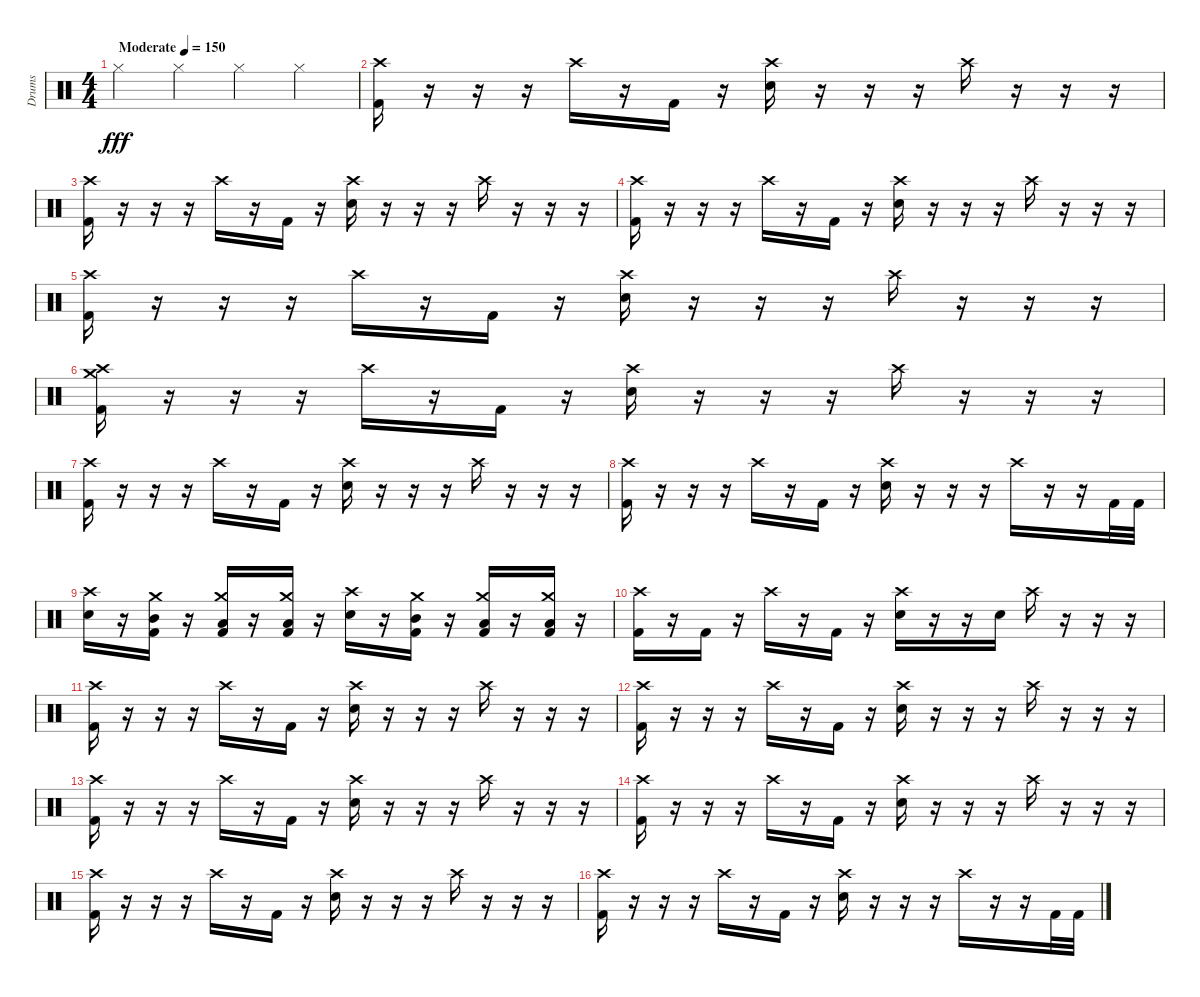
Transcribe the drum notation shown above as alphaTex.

\track ("Drums" "Drums") {instrument percussion}
\staff {score}
\articulation defaults
\ts (4 4)
\tempo (150 "Moderate")
\clef neutral
\ks c "Hi-Hat (closed)".4{dy fff} "Hi-Hat (closed)".4 "Hi-Hat (closed)".4 "Hi-Hat (closed)".4
|
("Crash high (hit)" "Kick (hit) 2").16 r.16 r.16 r.16 "Crash high (hit)".16 r.16 "Kick (hit) 2".16 r.16 ("Crash high (hit)" "Electric Snare (hit)").16 r.16 r.16 r.16 "Crash high (hit)".16 r.16 r.16 r.16 |
("Crash high (hit)" "Kick (hit) 2").16 r.16 r.16 r.16 "Crash high (hit)".16 r.16 "Kick (hit) 2".16 r.16 ("Crash high (hit)" "Electric Snare (hit)").16 r.16 r.16 r.16 "Crash high (hit)".16 r.16 r.16 r.16 |
("Crash high (hit)" "Kick (hit) 2").16 r.16 r.16 r.16 "Crash high (hit)".16 r.16 "Kick (hit) 2".16 r.16 ("Crash high (hit)" "Electric Snare (hit)").16 r.16 r.16 r.16 "Crash high (hit)".16 r.16 r.16 r.16 |
("Crash high (hit)" "Kick (hit) 2").16 r.16 r.16 r.16 "Crash high (hit)".16 r.16 "Kick (hit) 2".16 r.16 ("Crash high (hit)" "Electric Snare (hit)").16 r.16 r.16 r.16 "Crash high (hit)".16 r.16 r.16 r.16 |
("Crash medium (hit)" "Crash high (hit)" "Kick (hit) 2").16 r.16 r.16 r.16 "Crash high (hit)".16 r.16 "Kick (hit) 2".16 r.16 ("Crash high (hit)" "Electric Snare (hit)").16 r.16 r.16 r.16 "Crash high (hit)".16 r.16 r.16 r.16 |
("Crash high (hit)" "Kick (hit) 2").16 r.16 r.16 r.16 "Crash high (hit)".16 r.16 "Kick (hit) 2".16 r.16 ("Crash high (hit)" "Electric Snare (hit)").16 r.16 r.16 r.16 "Crash high (hit)".16 r.16 r.16 r.16 |
("Crash high (hit)" "Kick (hit) 2").16 r.16 r.16 r.16 "Crash high (hit)".16 r.16 "Kick (hit) 2".16 r.16 ("Crash high (hit)" "Electric Snare (hit)").16 r.16 r.16 r.16 "Crash high (hit)".16 r.16 r.16 "Kick (hit) 2".32 "Kick (hit) 2".32 |
("Crash high (hit)" "Electric Snare (hit)").16 r.16 ("Crash medium (hit)" "Mid Tom (hit)" "Kick (hit) 2").16 r.16 ("Crash medium (hit)" "Low Tom (hit)" "Kick (hit) 2").16 r.16 ("Crash medium (hit)" "Low Tom (hit)" "Kick (hit) 2").16 r.16 ("Crash high (hit)" "Electric Snare (hit)").16 r.16 ("Crash medium (hit)" "Mid Tom (hit)" "Kick (hit) 2").16 r.16 ("Crash medium (hit)" "Low Tom (hit)" "Kick (hit) 2").16 r.16 ("Crash medium (hit)" "Low Tom (hit)" "Kick (hit) 2").16 r.16 |
("Crash high (hit)" "Kick (hit) 2").16 r.16 "Kick (hit) 2".16 r.16 "Crash high (hit)".16 r.16 "Kick (hit) 2".16 r.16 ("Crash high (hit)" "Electric Snare (hit)").16 r.16 r.16 "Electric Snare (hit)".16 "Crash high (hit)".16 r.16 r.16 r.16 |
("Crash high (hit)" "Kick (hit) 2").16 r.16 r.16 r.16 "Crash high (hit)".16 r.16 "Kick (hit) 2".16 r.16 ("Crash high (hit)" "Electric Snare (hit)").16 r.16 r.16 r.16 "Crash high (hit)".16 r.16 r.16 r.16 |
("Crash high (hit)" "Kick (hit) 2").16 r.16 r.16 r.16 "Crash high (hit)".16 r.16 "Kick (hit) 2".16 r.16 ("Crash high (hit)" "Electric Snare (hit)").16 r.16 r.16 r.16 "Crash high (hit)".16 r.16 r.16 r.16 |
("Crash high (hit)" "Kick (hit) 2").16 r.16 r.16 r.16 "Crash high (hit)".16 r.16 "Kick (hit) 2".16 r.16 ("Crash high (hit)" "Electric Snare (hit)").16 r.16 r.16 r.16 "Crash high (hit)".16 r.16 r.16 r.16 |
("Crash high (hit)" "Kick (hit) 2").16 r.16 r.16 r.16 "Crash high (hit)".16 r.16 "Kick (hit) 2".16 r.16 ("Crash high (hit)" "Electric Snare (hit)").16 r.16 r.16 r.16 "Crash high (hit)".16 r.16 r.16 r.16 |
("Crash high (hit)" "Kick (hit) 2").16 r.16 r.16 r.16 "Crash high (hit)".16 r.16 "Kick (hit) 2".16 r.16 ("Crash high (hit)" "Electric Snare (hit)").16 r.16 r.16 r.16 "Crash high (hit)".16 r.16 r.16 r.16 |
("Crash high (hit)" "Kick (hit) 2").16 r.16 r.16 r.16 "Crash high (hit)".16 r.16 "Kick (hit) 2".16 r.16 ("Crash high (hit)" "Electric Snare (hit)").16 r.16 r.16 r.16 "Crash high (hit)".16 r.16 r.16 "Kick (hit) 2".32 "Kick (hit) 2".32
